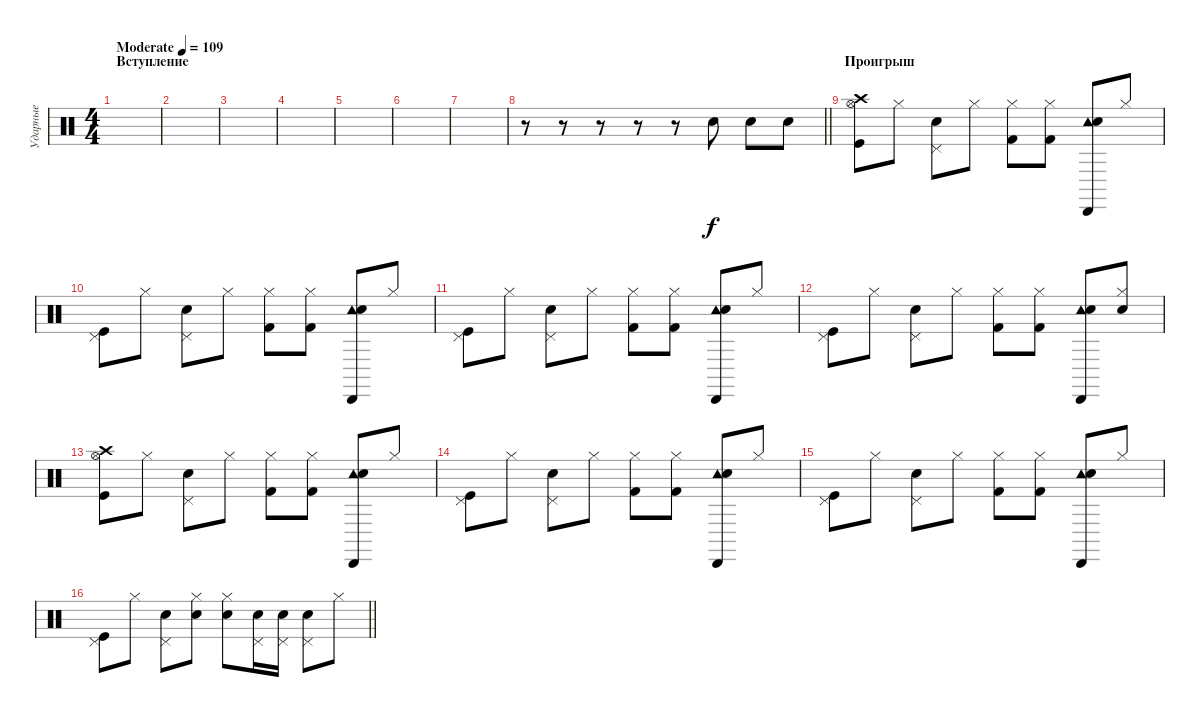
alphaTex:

\track ("Ударные" "Ударные") {instrument percussion}
\staff {score}
\articulation defaults
\ts (4 4)
\section ("" "Вступление ")
\tempo (109 "Moderate")
\clef neutral
\ks c
|
|
|
|
|
|
|
\barLineRight lightlight
r.8 r.8 r.8 r.8 r.8 "Snare (hit) 2".8 "Snare (hit) 2".8 "Snare (hit) 2".8 |
\section ("" "Проигрыш")
("Hi-Hat (open)" "Crash high (hit)" "Kick (hit)").8 "Hi-Hat (closed)".8 ("Pedal Hi-Hat (hit)" "Snare (hit) 2").8 "Hi-Hat (closed)".8 ("Hi-Hat (closed)" "Kick (hit) 2").8 ("Hi-Hat (closed)" "Kick (hit) 2").8 ("Tambourine (hit)" "Cabasa (hit)" "Snare (hit) 2").8 "Hi-Hat (closed)".8 |
("Pedal Hi-Hat (hit)" "Kick (hit)").8 "Hi-Hat (closed)".8 ("Pedal Hi-Hat (hit)" "Snare (hit) 2").8 "Hi-Hat (closed)".8 ("Hi-Hat (closed)" "Kick (hit) 2").8 ("Hi-Hat (closed)" "Kick (hit) 2").8 ("Tambourine (hit)" "Cabasa (hit)" "Snare (hit) 2").8 "Hi-Hat (closed)".8 |
("Pedal Hi-Hat (hit)" "Kick (hit)").8 "Hi-Hat (closed)".8 ("Pedal Hi-Hat (hit)" "Snare (hit) 2").8 "Hi-Hat (closed)".8 ("Hi-Hat (closed)" "Kick (hit) 2").8 ("Hi-Hat (closed)" "Kick (hit) 2").8 ("Tambourine (hit)" "Cabasa (hit)" "Snare (hit) 2").8 "Hi-Hat (closed)".8 |
("Pedal Hi-Hat (hit)" "Kick (hit)").8 "Hi-Hat (closed)".8 ("Pedal Hi-Hat (hit)" "Snare (hit) 2").8 "Hi-Hat (closed)".8 ("Hi-Hat (closed)" "Kick (hit) 2").8 ("Hi-Hat (closed)" "Kick (hit) 2").8 ("Tambourine (hit)" "Cabasa (hit)" "Snare (hit) 2").8 ("Hi-Hat (closed)" "Snare (hit) 2").8 |
("Hi-Hat (open)" "Crash high (hit)" "Kick (hit)").8 "Hi-Hat (closed)".8 ("Pedal Hi-Hat (hit)" "Snare (hit) 2").8 "Hi-Hat (closed)".8 ("Hi-Hat (closed)" "Kick (hit) 2").8 ("Hi-Hat (closed)" "Kick (hit) 2").8 ("Tambourine (hit)" "Cabasa (hit)" "Snare (hit) 2").8 "Hi-Hat (closed)".8 |
("Pedal Hi-Hat (hit)" "Kick (hit)").8 "Hi-Hat (closed)".8 ("Pedal Hi-Hat (hit)" "Snare (hit) 2").8 "Hi-Hat (closed)".8 ("Hi-Hat (closed)" "Kick (hit) 2").8 ("Hi-Hat (closed)" "Kick (hit) 2").8 ("Tambourine (hit)" "Cabasa (hit)" "Snare (hit) 2").8 "Hi-Hat (closed)".8 |
("Pedal Hi-Hat (hit)" "Kick (hit)").8 "Hi-Hat (closed)".8 ("Pedal Hi-Hat (hit)" "Snare (hit) 2").8 "Hi-Hat (closed)".8 ("Hi-Hat (closed)" "Kick (hit) 2").8 ("Hi-Hat (closed)" "Kick (hit) 2").8 ("Tambourine (hit)" "Cabasa (hit)" "Snare (hit) 2").8 "Hi-Hat (closed)".8 |
\barLineRight lightlight
("Pedal Hi-Hat (hit)" "Kick (hit)").8 "Hi-Hat (closed)".8 ("Pedal Hi-Hat (hit)" "Snare (hit) 2").8 ("Hi-Hat (closed)" "Snare (hit) 2").8 ("Hi-Hat (closed)" "Snare (hit) 2").8 ("Pedal Hi-Hat (hit)" "Snare (hit) 2").16 ("Pedal Hi-Hat (hit)" "Snare (hit) 2").16 ("Pedal Hi-Hat (hit)" "Snare (hit) 2").8 "Hi-Hat (closed)".8
